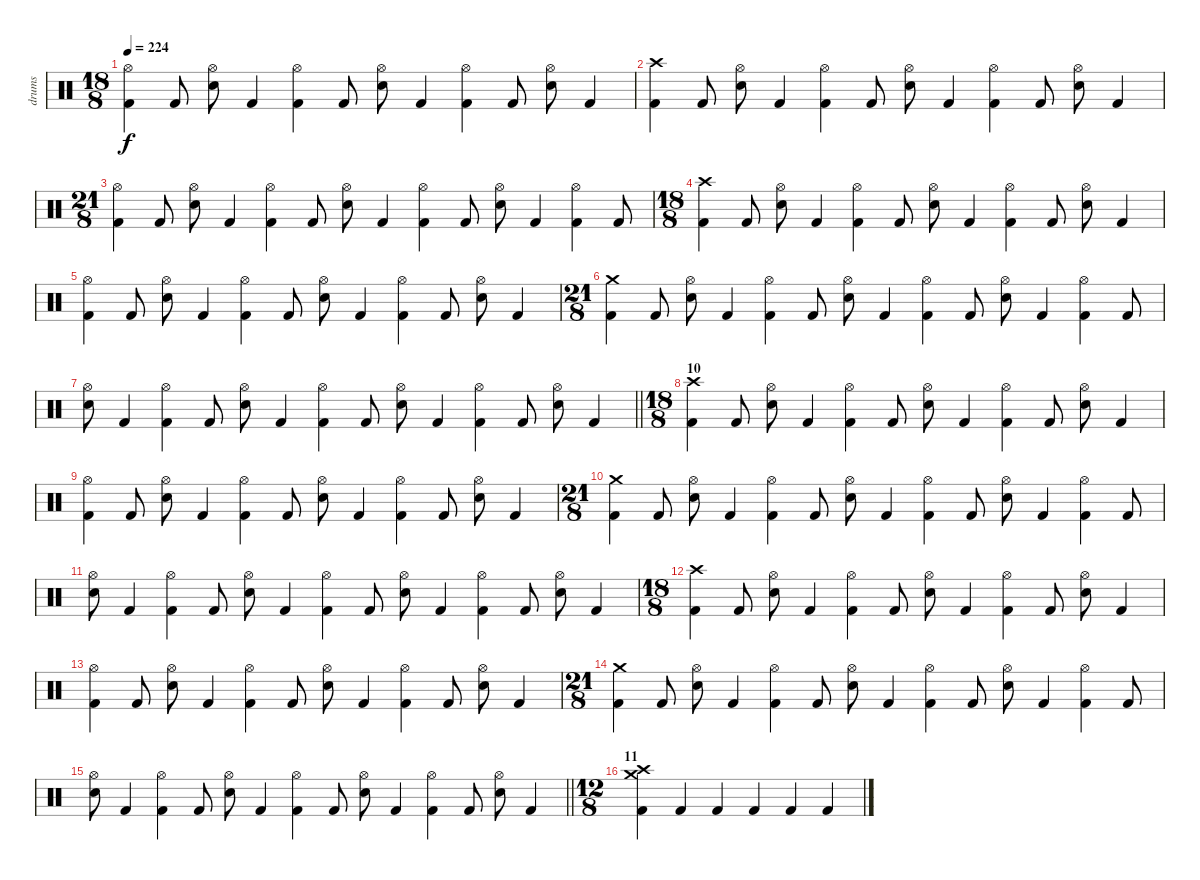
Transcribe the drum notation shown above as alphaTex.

\track ("drums" "drums") {instrument percussion}
\staff {score}
\articulation defaults
\ts (18 8)
\tempo 224
\clef neutral
\ks c
("Hi-Hat (open)" "Kick (hit) 2").4{dy f} "Kick (hit) 2".8 ("Electric Snare (hit)" "Hi-Hat (open)").8 "Kick (hit) 2".4 ("Hi-Hat (open)" "Kick (hit) 2").4 "Kick (hit) 2".8 ("Electric Snare (hit)" "Hi-Hat (open)").8 "Kick (hit) 2".4 ("Hi-Hat (open)" "Kick (hit) 2").4 "Kick (hit) 2".8 ("Electric Snare (hit)" "Hi-Hat (open)").8 "Kick (hit) 2".4 |
("Crash high (hit)" "Kick (hit) 2").4 "Kick (hit) 2".8 ("Hi-Hat (open)" "Electric Snare (hit)").8 "Kick (hit) 2".4 ("Hi-Hat (open)" "Kick (hit) 2").4 "Kick (hit) 2".8 ("Hi-Hat (open)" "Electric Snare (hit)").8 "Kick (hit) 2".4 ("Hi-Hat (open)" "Kick (hit) 2").4 "Kick (hit) 2".8 ("Hi-Hat (open)" "Electric Snare (hit)").8 "Kick (hit) 2".4 |
\ts (21 8)
("Kick (hit) 2" "Hi-Hat (open)").4 "Kick (hit) 2".8 ("Electric Snare (hit)" "Hi-Hat (open)").8 "Kick (hit) 2".4 ("Kick (hit) 2" "Hi-Hat (open)").4 "Kick (hit) 2".8 ("Electric Snare (hit)" "Hi-Hat (open)").8 "Kick (hit) 2".4 ("Kick (hit) 2" "Hi-Hat (open)").4 "Kick (hit) 2".8 ("Electric Snare (hit)" "Hi-Hat (open)").8 "Kick (hit) 2".4 ("Kick (hit) 2" "Hi-Hat (open)").4 "Kick (hit) 2".8 |
\ts (18 8)
("Crash high (hit)" "Kick (hit) 2").4 "Kick (hit) 2".8 ("Hi-Hat (open)" "Electric Snare (hit)").8 "Kick (hit) 2".4 ("Hi-Hat (open)" "Kick (hit) 2").4 "Kick (hit) 2".8 ("Hi-Hat (open)" "Electric Snare (hit)").8 "Kick (hit) 2".4 ("Hi-Hat (open)" "Kick (hit) 2").4 "Kick (hit) 2".8 ("Hi-Hat (open)" "Electric Snare (hit)").8 "Kick (hit) 2".4 |
("Hi-Hat (open)" "Kick (hit) 2").4 "Kick (hit) 2".8 ("Electric Snare (hit)" "Hi-Hat (open)").8 "Kick (hit) 2".4 ("Hi-Hat (open)" "Kick (hit) 2").4 "Kick (hit) 2".8 ("Electric Snare (hit)" "Hi-Hat (open)").8 "Kick (hit) 2".4 ("Hi-Hat (open)" "Kick (hit) 2").4 "Kick (hit) 2".8 ("Electric Snare (hit)" "Hi-Hat (open)").8 "Kick (hit) 2".4 |
\ts (21 8)
("Kick (hit) 2" "Crash medium (hit)").4 "Kick (hit) 2".8 ("Electric Snare (hit)" "Hi-Hat (open)").8 "Kick (hit) 2".4 ("Kick (hit) 2" "Hi-Hat (open)").4 "Kick (hit) 2".8 ("Electric Snare (hit)" "Hi-Hat (open)").8 "Kick (hit) 2".4 ("Kick (hit) 2" "Hi-Hat (open)").4 "Kick (hit) 2".8 ("Electric Snare (hit)" "Hi-Hat (open)").8 "Kick (hit) 2".4 ("Kick (hit) 2" "Hi-Hat (open)").4 "Kick (hit) 2".8 |
\barLineRight lightlight
("Electric Snare (hit)" "Hi-Hat (open)").8 "Kick (hit) 2".4 ("Kick (hit) 2" "Hi-Hat (open)").4 "Kick (hit) 2".8 ("Electric Snare (hit)" "Hi-Hat (open)").8 "Kick (hit) 2".4 ("Kick (hit) 2" "Hi-Hat (open)").4 "Kick (hit) 2".8 ("Electric Snare (hit)" "Hi-Hat (open)").8 "Kick (hit) 2".4 ("Kick (hit) 2" "Hi-Hat (open)").4 "Kick (hit) 2".8 ("Electric Snare (hit)" "Hi-Hat (open)").8 "Kick (hit) 2".4 |
\ts (18 8)
\section ("" "10")
("Crash high (hit)" "Kick (hit) 2").4 "Kick (hit) 2".8 ("Hi-Hat (open)" "Electric Snare (hit)").8 "Kick (hit) 2".4 ("Hi-Hat (open)" "Kick (hit) 2").4 "Kick (hit) 2".8 ("Hi-Hat (open)" "Electric Snare (hit)").8 "Kick (hit) 2".4 ("Hi-Hat (open)" "Kick (hit) 2").4 "Kick (hit) 2".8 ("Hi-Hat (open)" "Electric Snare (hit)").8 "Kick (hit) 2".4 |
("Hi-Hat (open)" "Kick (hit) 2").4 "Kick (hit) 2".8 ("Electric Snare (hit)" "Hi-Hat (open)").8 "Kick (hit) 2".4 ("Hi-Hat (open)" "Kick (hit) 2").4 "Kick (hit) 2".8 ("Electric Snare (hit)" "Hi-Hat (open)").8 "Kick (hit) 2".4 ("Hi-Hat (open)" "Kick (hit) 2").4 "Kick (hit) 2".8 ("Electric Snare (hit)" "Hi-Hat (open)").8 "Kick (hit) 2".4 |
\ts (21 8)
("Kick (hit) 2" "Crash medium (hit)").4 "Kick (hit) 2".8 ("Electric Snare (hit)" "Hi-Hat (open)").8 "Kick (hit) 2".4 ("Kick (hit) 2" "Hi-Hat (open)").4 "Kick (hit) 2".8 ("Electric Snare (hit)" "Hi-Hat (open)").8 "Kick (hit) 2".4 ("Kick (hit) 2" "Hi-Hat (open)").4 "Kick (hit) 2".8 ("Electric Snare (hit)" "Hi-Hat (open)").8 "Kick (hit) 2".4 ("Kick (hit) 2" "Hi-Hat (open)").4 "Kick (hit) 2".8 |
("Electric Snare (hit)" "Hi-Hat (open)").8 "Kick (hit) 2".4 ("Kick (hit) 2" "Hi-Hat (open)").4 "Kick (hit) 2".8 ("Electric Snare (hit)" "Hi-Hat (open)").8 "Kick (hit) 2".4 ("Kick (hit) 2" "Hi-Hat (open)").4 "Kick (hit) 2".8 ("Electric Snare (hit)" "Hi-Hat (open)").8 "Kick (hit) 2".4 ("Kick (hit) 2" "Hi-Hat (open)").4 "Kick (hit) 2".8 ("Electric Snare (hit)" "Hi-Hat (open)").8 "Kick (hit) 2".4 |
\ts (18 8)
("Crash high (hit)" "Kick (hit) 2").4 "Kick (hit) 2".8 ("Hi-Hat (open)" "Electric Snare (hit)").8 "Kick (hit) 2".4 ("Hi-Hat (open)" "Kick (hit) 2").4 "Kick (hit) 2".8 ("Hi-Hat (open)" "Electric Snare (hit)").8 "Kick (hit) 2".4 ("Hi-Hat (open)" "Kick (hit) 2").4 "Kick (hit) 2".8 ("Hi-Hat (open)" "Electric Snare (hit)").8 "Kick (hit) 2".4 |
("Hi-Hat (open)" "Kick (hit) 2").4 "Kick (hit) 2".8 ("Electric Snare (hit)" "Hi-Hat (open)").8 "Kick (hit) 2".4 ("Hi-Hat (open)" "Kick (hit) 2").4 "Kick (hit) 2".8 ("Electric Snare (hit)" "Hi-Hat (open)").8 "Kick (hit) 2".4 ("Hi-Hat (open)" "Kick (hit) 2").4 "Kick (hit) 2".8 ("Electric Snare (hit)" "Hi-Hat (open)").8 "Kick (hit) 2".4 |
\ts (21 8)
("Kick (hit) 2" "Crash medium (hit)").4 "Kick (hit) 2".8 ("Electric Snare (hit)" "Hi-Hat (open)").8 "Kick (hit) 2".4 ("Kick (hit) 2" "Hi-Hat (open)").4 "Kick (hit) 2".8 ("Electric Snare (hit)" "Hi-Hat (open)").8 "Kick (hit) 2".4 ("Kick (hit) 2" "Hi-Hat (open)").4 "Kick (hit) 2".8 ("Electric Snare (hit)" "Hi-Hat (open)").8 "Kick (hit) 2".4 ("Kick (hit) 2" "Hi-Hat (open)").4 "Kick (hit) 2".8 |
\barLineRight lightlight
("Electric Snare (hit)" "Hi-Hat (open)").8 "Kick (hit) 2".4 ("Kick (hit) 2" "Hi-Hat (open)").4 "Kick (hit) 2".8 ("Electric Snare (hit)" "Hi-Hat (open)").8 "Kick (hit) 2".4 ("Kick (hit) 2" "Hi-Hat (open)").4 "Kick (hit) 2".8 ("Electric Snare (hit)" "Hi-Hat (open)").8 "Kick (hit) 2".4 ("Kick (hit) 2" "Hi-Hat (open)").4 "Kick (hit) 2".8 ("Electric Snare (hit)" "Hi-Hat (open)").8 "Kick (hit) 2".4 |
\ts (12 8)
\section ("" "11")
("Kick (hit) 2" "Crash medium (hit)" "Crash high (hit)").4 "Kick (hit) 2".4 "Kick (hit) 2".4 "Kick (hit) 2".4 "Kick (hit) 2".4 "Kick (hit) 2".4
